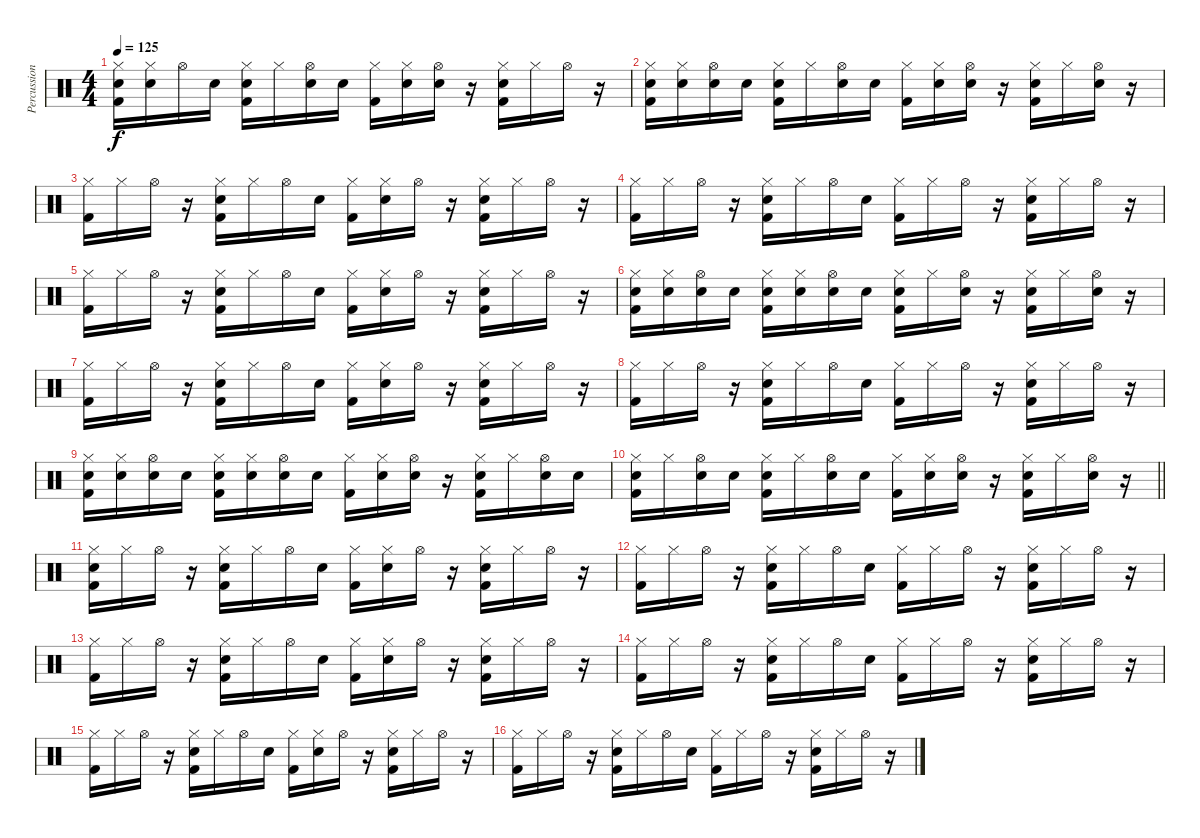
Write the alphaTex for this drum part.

\track ("Percussion" "Percussion") {instrument percussion}
\staff {score}
\articulation defaults
\ts (4 4)
\tempo 125
\clef neutral
\ks c
("Hi-Hat (closed)" "Electric Snare (hit)" "Kick (hit) 2").16{dy f} ("Hi-Hat (closed)" "Electric Snare (hit)").16 "Hi-Hat (open)".16 "Electric Snare (hit)".16 ("Hi-Hat (closed)" "Electric Snare (hit)" "Kick (hit) 2").16 "Hi-Hat (closed)".16 ("Hi-Hat (open)" "Electric Snare (hit)").16 "Electric Snare (hit)".16 ("Hi-Hat (closed)" "Kick (hit) 2").16 ("Hi-Hat (closed)" "Electric Snare (hit)").16 ("Hi-Hat (open)" "Electric Snare (hit)").16 r.16 ("Hi-Hat (closed)" "Electric Snare (hit)" "Kick (hit) 2").16 "Hi-Hat (closed)".16 "Hi-Hat (open)".16 r.16 |
("Hi-Hat (closed)" "Electric Snare (hit)" "Kick (hit) 2").16 ("Hi-Hat (closed)" "Electric Snare (hit)").16 ("Hi-Hat (open)" "Electric Snare (hit)").16 "Electric Snare (hit)".16 ("Hi-Hat (closed)" "Electric Snare (hit)" "Kick (hit) 2").16 "Hi-Hat (closed)".16 ("Hi-Hat (open)" "Electric Snare (hit)").16 "Electric Snare (hit)".16 ("Hi-Hat (closed)" "Kick (hit) 2").16 ("Hi-Hat (closed)" "Electric Snare (hit)").16 ("Hi-Hat (open)" "Electric Snare (hit)").16 r.16 ("Hi-Hat (closed)" "Electric Snare (hit)" "Kick (hit) 2").16 "Hi-Hat (closed)".16 ("Hi-Hat (open)" "Electric Snare (hit)").16 r.16 |
("Hi-Hat (closed)" "Kick (hit) 2").16 "Hi-Hat (closed)".16 "Hi-Hat (open)".16 r.16 ("Hi-Hat (closed)" "Electric Snare (hit)" "Kick (hit) 2").16 "Hi-Hat (closed)".16 "Hi-Hat (open)".16 "Electric Snare (hit)".16 ("Hi-Hat (closed)" "Kick (hit) 2").16 ("Hi-Hat (closed)" "Electric Snare (hit)").16 "Hi-Hat (open)".16 r.16 ("Hi-Hat (closed)" "Electric Snare (hit)" "Kick (hit) 2").16 "Hi-Hat (closed)".16 "Hi-Hat (open)".16 r.16 |
("Hi-Hat (closed)" "Kick (hit) 2").16 "Hi-Hat (closed)".16 "Hi-Hat (open)".16 r.16 ("Hi-Hat (closed)" "Electric Snare (hit)" "Kick (hit) 2").16 "Hi-Hat (closed)".16 "Hi-Hat (open)".16 "Electric Snare (hit)".16 ("Hi-Hat (closed)" "Kick (hit) 2").16 "Hi-Hat (closed)".16 "Hi-Hat (open)".16 r.16 ("Hi-Hat (closed)" "Electric Snare (hit)" "Kick (hit) 2").16 "Hi-Hat (closed)".16 "Hi-Hat (open)".16 r.16 |
("Hi-Hat (closed)" "Kick (hit) 2").16 "Hi-Hat (closed)".16 "Hi-Hat (open)".16 r.16 ("Hi-Hat (closed)" "Electric Snare (hit)" "Kick (hit) 2").16 "Hi-Hat (closed)".16 "Hi-Hat (open)".16 "Electric Snare (hit)".16 ("Hi-Hat (closed)" "Kick (hit) 2").16 ("Hi-Hat (closed)" "Electric Snare (hit)").16 "Hi-Hat (open)".16 r.16 ("Hi-Hat (closed)" "Electric Snare (hit)" "Kick (hit) 2").16 "Hi-Hat (closed)".16 "Hi-Hat (open)".16 r.16 |
("Hi-Hat (closed)" "Electric Snare (hit)" "Kick (hit) 2").16 ("Hi-Hat (closed)" "Electric Snare (hit)").16 ("Hi-Hat (open)" "Electric Snare (hit)").16 "Electric Snare (hit)".16 ("Hi-Hat (closed)" "Electric Snare (hit)" "Kick (hit) 2").16 ("Hi-Hat (closed)" "Electric Snare (hit)").16 ("Hi-Hat (open)" "Electric Snare (hit)").16 "Electric Snare (hit)".16 ("Hi-Hat (closed)" "Electric Snare (hit)" "Kick (hit) 2").16 "Hi-Hat (closed)".16 ("Hi-Hat (open)" "Electric Snare (hit)").16 r.16 ("Hi-Hat (closed)" "Electric Snare (hit)" "Kick (hit) 2").16 "Hi-Hat (closed)".16 ("Hi-Hat (open)" "Electric Snare (hit)").16 r.16 |
("Hi-Hat (closed)" "Kick (hit) 2").16 "Hi-Hat (closed)".16 "Hi-Hat (open)".16 r.16 ("Hi-Hat (closed)" "Electric Snare (hit)" "Kick (hit) 2").16 "Hi-Hat (closed)".16 "Hi-Hat (open)".16 "Electric Snare (hit)".16 ("Hi-Hat (closed)" "Kick (hit) 2").16 ("Hi-Hat (closed)" "Electric Snare (hit)").16 "Hi-Hat (open)".16 r.16 ("Hi-Hat (closed)" "Electric Snare (hit)" "Kick (hit) 2").16 "Hi-Hat (closed)".16 "Hi-Hat (open)".16 r.16 |
("Hi-Hat (closed)" "Kick (hit) 2").16 "Hi-Hat (closed)".16 "Hi-Hat (open)".16 r.16 ("Hi-Hat (closed)" "Electric Snare (hit)" "Kick (hit) 2").16 "Hi-Hat (closed)".16 "Hi-Hat (open)".16 "Electric Snare (hit)".16 ("Hi-Hat (closed)" "Kick (hit) 2").16 "Hi-Hat (closed)".16 "Hi-Hat (open)".16 r.16 ("Hi-Hat (closed)" "Electric Snare (hit)" "Kick (hit) 2").16 "Hi-Hat (closed)".16 "Hi-Hat (open)".16 r.16 |
("Hi-Hat (closed)" "Electric Snare (hit)" "Kick (hit) 2").16 ("Hi-Hat (closed)" "Electric Snare (hit)").16 ("Hi-Hat (open)" "Electric Snare (hit)").16 "Electric Snare (hit)".16 ("Hi-Hat (closed)" "Electric Snare (hit)" "Kick (hit) 2").16 ("Hi-Hat (closed)" "Electric Snare (hit)").16 ("Hi-Hat (open)" "Electric Snare (hit)").16 "Electric Snare (hit)".16 ("Hi-Hat (closed)" "Kick (hit) 2").16 ("Hi-Hat (closed)" "Electric Snare (hit)").16 ("Hi-Hat (open)" "Electric Snare (hit)").16 r.16 ("Hi-Hat (closed)" "Electric Snare (hit)" "Kick (hit) 2").16 "Hi-Hat (closed)".16 ("Hi-Hat (open)" "Electric Snare (hit)").16 "Electric Snare (hit)".16 |
\barLineRight lightlight
("Hi-Hat (closed)" "Electric Snare (hit)" "Kick (hit) 2").16 "Hi-Hat (closed)".16 ("Hi-Hat (open)" "Electric Snare (hit)").16 "Electric Snare (hit)".16 ("Hi-Hat (closed)" "Electric Snare (hit)" "Kick (hit) 2").16 "Hi-Hat (closed)".16 ("Hi-Hat (open)" "Electric Snare (hit)").16 "Electric Snare (hit)".16 ("Hi-Hat (closed)" "Kick (hit) 2").16 ("Hi-Hat (closed)" "Electric Snare (hit)").16 ("Hi-Hat (open)" "Electric Snare (hit)").16 r.16 ("Hi-Hat (closed)" "Electric Snare (hit)" "Kick (hit) 2").16 "Hi-Hat (closed)".16 ("Hi-Hat (open)" "Electric Snare (hit)").16 r.16 |
("Hi-Hat (closed)" "Electric Snare (hit)" "Kick (hit) 2").16 "Hi-Hat (closed)".16 "Hi-Hat (open)".16 r.16 ("Hi-Hat (closed)" "Electric Snare (hit)" "Kick (hit) 2").16 "Hi-Hat (closed)".16 "Hi-Hat (open)".16 "Electric Snare (hit)".16 ("Hi-Hat (closed)" "Kick (hit) 2").16 ("Hi-Hat (closed)" "Electric Snare (hit)").16 "Hi-Hat (open)".16 r.16 ("Hi-Hat (closed)" "Electric Snare (hit)" "Kick (hit) 2").16 "Hi-Hat (closed)".16 "Hi-Hat (open)".16 r.16 |
("Hi-Hat (closed)" "Kick (hit) 2").16 "Hi-Hat (closed)".16 "Hi-Hat (open)".16 r.16 ("Hi-Hat (closed)" "Electric Snare (hit)" "Kick (hit) 2").16 "Hi-Hat (closed)".16 "Hi-Hat (open)".16 "Electric Snare (hit)".16 ("Hi-Hat (closed)" "Kick (hit) 2").16 "Hi-Hat (closed)".16 "Hi-Hat (open)".16 r.16 ("Hi-Hat (closed)" "Electric Snare (hit)" "Kick (hit) 2").16 "Hi-Hat (closed)".16 "Hi-Hat (open)".16 r.16 |
("Hi-Hat (closed)" "Kick (hit) 2").16 "Hi-Hat (closed)".16 "Hi-Hat (open)".16 r.16 ("Hi-Hat (closed)" "Electric Snare (hit)" "Kick (hit) 2").16 "Hi-Hat (closed)".16 "Hi-Hat (open)".16 "Electric Snare (hit)".16 ("Hi-Hat (closed)" "Kick (hit) 2").16 ("Hi-Hat (closed)" "Electric Snare (hit)").16 "Hi-Hat (open)".16 r.16 ("Hi-Hat (closed)" "Electric Snare (hit)" "Kick (hit) 2").16 "Hi-Hat (closed)".16 "Hi-Hat (open)".16 r.16 |
("Hi-Hat (closed)" "Kick (hit) 2").16 "Hi-Hat (closed)".16 "Hi-Hat (open)".16 r.16 ("Hi-Hat (closed)" "Electric Snare (hit)" "Kick (hit) 2").16 "Hi-Hat (closed)".16 "Hi-Hat (open)".16 "Electric Snare (hit)".16 ("Hi-Hat (closed)" "Kick (hit) 2").16 "Hi-Hat (closed)".16 "Hi-Hat (open)".16 r.16 ("Hi-Hat (closed)" "Electric Snare (hit)" "Kick (hit) 2").16 "Hi-Hat (closed)".16 "Hi-Hat (open)".16 r.16 |
("Hi-Hat (closed)" "Kick (hit) 2").16 "Hi-Hat (closed)".16 "Hi-Hat (open)".16 r.16 ("Hi-Hat (closed)" "Electric Snare (hit)" "Kick (hit) 2").16 "Hi-Hat (closed)".16 "Hi-Hat (open)".16 "Electric Snare (hit)".16 ("Hi-Hat (closed)" "Kick (hit) 2").16 ("Hi-Hat (closed)" "Electric Snare (hit)").16 "Hi-Hat (open)".16 r.16 ("Hi-Hat (closed)" "Electric Snare (hit)" "Kick (hit) 2").16 "Hi-Hat (closed)".16 "Hi-Hat (open)".16 r.16 |
("Hi-Hat (closed)" "Kick (hit) 2").16 "Hi-Hat (closed)".16 "Hi-Hat (open)".16 r.16 ("Hi-Hat (closed)" "Electric Snare (hit)" "Kick (hit) 2").16 "Hi-Hat (closed)".16 "Hi-Hat (open)".16 "Electric Snare (hit)".16 ("Hi-Hat (closed)" "Kick (hit) 2").16 "Hi-Hat (closed)".16 "Hi-Hat (open)".16 r.16 ("Hi-Hat (closed)" "Electric Snare (hit)" "Kick (hit) 2").16 "Hi-Hat (closed)".16 "Hi-Hat (open)".16 r.16
